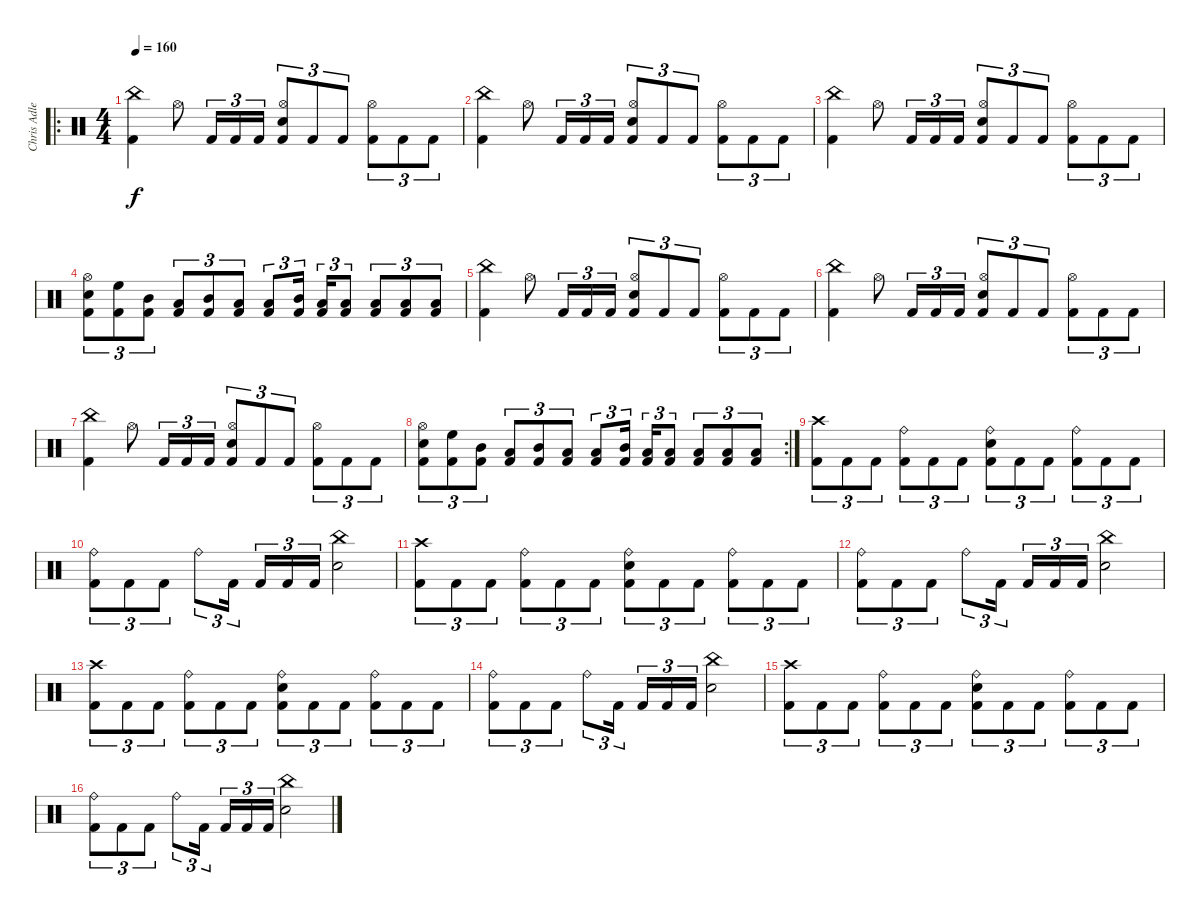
\track ("Chris Adler" "Chris Adle") {instrument percussion}
\staff {score}
\articulation defaults
\ro
\ts (4 4)
\tempo 160
\clef neutral
\ks c
("China (hit)" "Kick (hit) 2").4{dy f} "Hi-Hat (open)".8 "Kick (hit) 2".16{tu (3 2)} "Kick (hit) 2".16{tu (3 2)} "Kick (hit) 2".16{tu (3 2)} ("Hi-Hat (open)" "Snare (hit) 2" "Kick (hit) 2").8{tu (3 2)} "Kick (hit) 2".8{tu (3 2)} "Kick (hit) 2".8{tu (3 2)} ("Hi-Hat (open)" "Kick (hit) 2").8{tu (3 2)} "Kick (hit) 2".8{tu (3 2)} "Kick (hit) 2".8{tu (3 2)} |
("China (hit)" "Kick (hit) 2").4 "Hi-Hat (open)".8 "Kick (hit) 2".16{tu (3 2)} "Kick (hit) 2".16{tu (3 2)} "Kick (hit) 2".16{tu (3 2)} ("Hi-Hat (open)" "Snare (hit) 2" "Kick (hit) 2").8{tu (3 2)} "Kick (hit) 2".8{tu (3 2)} "Kick (hit) 2".8{tu (3 2)} ("Hi-Hat (open)" "Kick (hit) 2").8{tu (3 2)} "Kick (hit) 2".8{tu (3 2)} "Kick (hit) 2".8{tu (3 2)} |
("China (hit)" "Kick (hit) 2").4 "Hi-Hat (open)".8 "Kick (hit) 2".16{tu (3 2)} "Kick (hit) 2".16{tu (3 2)} "Kick (hit) 2".16{tu (3 2)} ("Hi-Hat (open)" "Snare (hit) 2" "Kick (hit) 2").8{tu (3 2)} "Kick (hit) 2".8{tu (3 2)} "Kick (hit) 2".8{tu (3 2)} ("Hi-Hat (open)" "Kick (hit) 2").8{tu (3 2)} "Kick (hit) 2".8{tu (3 2)} "Kick (hit) 2".8{tu (3 2)} |
("Hi-Hat (open)" "Snare (hit) 2" "Kick (hit) 2").8{tu (3 2)} ("High Floor Tom (hit)" "Kick (hit) 2").8{tu (3 2)} ("Mid Tom (hit)" "Kick (hit) 2").8{tu (3 2)} ("Low Tom (hit)" "Kick (hit) 2").8{tu (3 2)} ("Mid Tom (hit)" "Kick (hit) 2").8{tu (3 2)} ("Low Tom (hit)" "Kick (hit) 2").8{tu (3 2)} ("Low Floor Tom (hit)" "Kick (hit) 2").8{tu (3 2)} ("Mid Tom (hit)" "Kick (hit) 2").16{tu (3 2) beam splitsecondary} ("Low Tom (hit)" "Kick (hit) 2").16{tu (3 2)} ("Low Tom (hit)" "Kick (hit) 2").8{tu (3 2)} ("Low Floor Tom (hit)" "Kick (hit) 2").8{tu (3 2)} ("Low Tom (hit)" "Kick (hit) 2").8{tu (3 2)} ("Low Floor Tom (hit)" "Kick (hit) 2").8{tu (3 2)} |
("China (hit)" "Kick (hit) 2").4 "Hi-Hat (open)".8 "Kick (hit) 2".16{tu (3 2)} "Kick (hit) 2".16{tu (3 2)} "Kick (hit) 2".16{tu (3 2)} ("Hi-Hat (open)" "Snare (hit) 2" "Kick (hit) 2").8{tu (3 2)} "Kick (hit) 2".8{tu (3 2)} "Kick (hit) 2".8{tu (3 2)} ("Hi-Hat (open)" "Kick (hit) 2").8{tu (3 2)} "Kick (hit) 2".8{tu (3 2)} "Kick (hit) 2".8{tu (3 2)} |
("China (hit)" "Kick (hit) 2").4 "Hi-Hat (open)".8 "Kick (hit) 2".16{tu (3 2)} "Kick (hit) 2".16{tu (3 2)} "Kick (hit) 2".16{tu (3 2)} ("Hi-Hat (open)" "Snare (hit) 2" "Kick (hit) 2").8{tu (3 2)} "Kick (hit) 2".8{tu (3 2)} "Kick (hit) 2".8{tu (3 2)} ("Hi-Hat (open)" "Kick (hit) 2").8{tu (3 2)} "Kick (hit) 2".8{tu (3 2)} "Kick (hit) 2".8{tu (3 2)} |
("China (hit)" "Kick (hit) 2").4 "Hi-Hat (open)".8 "Kick (hit) 2".16{tu (3 2)} "Kick (hit) 2".16{tu (3 2)} "Kick (hit) 2".16{tu (3 2)} ("Hi-Hat (open)" "Snare (hit) 2" "Kick (hit) 2").8{tu (3 2)} "Kick (hit) 2".8{tu (3 2)} "Kick (hit) 2".8{tu (3 2)} ("Hi-Hat (open)" "Kick (hit) 2").8{tu (3 2)} "Kick (hit) 2".8{tu (3 2)} "Kick (hit) 2".8{tu (3 2)} |
\rc 2
("Hi-Hat (open)" "Snare (hit) 2" "Kick (hit) 2").8{tu (3 2)} ("High Floor Tom (hit)" "Kick (hit) 2").8{tu (3 2)} ("Mid Tom (hit)" "Kick (hit) 2").8{tu (3 2)} ("Low Tom (hit)" "Kick (hit) 2").8{tu (3 2)} ("Mid Tom (hit)" "Kick (hit) 2").8{tu (3 2)} ("Low Tom (hit)" "Kick (hit) 2").8{tu (3 2)} ("Low Floor Tom (hit)" "Kick (hit) 2").8{tu (3 2)} ("Mid Tom (hit)" "Kick (hit) 2").16{tu (3 2) beam splitsecondary} ("Low Tom (hit)" "Kick (hit) 2").16{tu (3 2)} ("Low Tom (hit)" "Kick (hit) 2").8{tu (3 2)} ("Low Floor Tom (hit)" "Kick (hit) 2").8{tu (3 2)} ("Low Tom (hit)" "Kick (hit) 2").8{tu (3 2)} ("Low Floor Tom (hit)" "Kick (hit) 2").8{tu (3 2)} |
("Crash high (hit)" "Kick (hit) 2").8{tu (3 2)} "Kick (hit) 2".8{tu (3 2)} "Kick (hit) 2".8{tu (3 2)} ("Ride (bell)" "Kick (hit) 2").8{tu (3 2)} "Kick (hit) 2".8{tu (3 2)} "Kick (hit) 2".8{tu (3 2)} ("Ride (bell)" "Snare (hit) 2" "Kick (hit) 2").8{tu (3 2)} "Kick (hit) 2".8{tu (3 2)} "Kick (hit) 2".8{tu (3 2)} ("Ride (bell)" "Kick (hit) 2").8{tu (3 2)} "Kick (hit) 2".8{tu (3 2)} "Kick (hit) 2".8{tu (3 2)} |
("Ride (bell)" "Kick (hit) 2").8{tu (3 2)} "Kick (hit) 2".8{tu (3 2)} "Kick (hit) 2".8{tu (3 2)} "Ride (bell)".8{tu (3 2)} "Kick (hit) 2".16{tu (3 2) beam splitsecondary} "Kick (hit) 2".16{tu (3 2)} "Kick (hit) 2".16{tu (3 2)} "Kick (hit) 2".16{tu (3 2)} ("China (hit)" "Snare (hit) 2").2 |
("Crash high (hit)" "Kick (hit) 2").8{tu (3 2)} "Kick (hit) 2".8{tu (3 2)} "Kick (hit) 2".8{tu (3 2)} ("Ride (bell)" "Kick (hit) 2").8{tu (3 2)} "Kick (hit) 2".8{tu (3 2)} "Kick (hit) 2".8{tu (3 2)} ("Ride (bell)" "Snare (hit) 2" "Kick (hit) 2").8{tu (3 2)} "Kick (hit) 2".8{tu (3 2)} "Kick (hit) 2".8{tu (3 2)} ("Ride (bell)" "Kick (hit) 2").8{tu (3 2)} "Kick (hit) 2".8{tu (3 2)} "Kick (hit) 2".8{tu (3 2)} |
("Ride (bell)" "Kick (hit) 2").8{tu (3 2)} "Kick (hit) 2".8{tu (3 2)} "Kick (hit) 2".8{tu (3 2)} "Ride (bell)".8{tu (3 2)} "Kick (hit) 2".16{tu (3 2) beam splitsecondary} "Kick (hit) 2".16{tu (3 2)} "Kick (hit) 2".16{tu (3 2)} "Kick (hit) 2".16{tu (3 2)} ("China (hit)" "Snare (hit) 2").2 |
("Crash high (hit)" "Kick (hit) 2").8{tu (3 2)} "Kick (hit) 2".8{tu (3 2)} "Kick (hit) 2".8{tu (3 2)} ("Ride (bell)" "Kick (hit) 2").8{tu (3 2)} "Kick (hit) 2".8{tu (3 2)} "Kick (hit) 2".8{tu (3 2)} ("Ride (bell)" "Snare (hit) 2" "Kick (hit) 2").8{tu (3 2)} "Kick (hit) 2".8{tu (3 2)} "Kick (hit) 2".8{tu (3 2)} ("Ride (bell)" "Kick (hit) 2").8{tu (3 2)} "Kick (hit) 2".8{tu (3 2)} "Kick (hit) 2".8{tu (3 2)} |
("Ride (bell)" "Kick (hit) 2").8{tu (3 2)} "Kick (hit) 2".8{tu (3 2)} "Kick (hit) 2".8{tu (3 2)} "Ride (bell)".8{tu (3 2)} "Kick (hit) 2".16{tu (3 2) beam splitsecondary} "Kick (hit) 2".16{tu (3 2)} "Kick (hit) 2".16{tu (3 2)} "Kick (hit) 2".16{tu (3 2)} ("China (hit)" "Snare (hit) 2").2 |
("Crash high (hit)" "Kick (hit) 2").8{tu (3 2)} "Kick (hit) 2".8{tu (3 2)} "Kick (hit) 2".8{tu (3 2)} ("Ride (bell)" "Kick (hit) 2").8{tu (3 2)} "Kick (hit) 2".8{tu (3 2)} "Kick (hit) 2".8{tu (3 2)} ("Ride (bell)" "Snare (hit) 2" "Kick (hit) 2").8{tu (3 2)} "Kick (hit) 2".8{tu (3 2)} "Kick (hit) 2".8{tu (3 2)} ("Ride (bell)" "Kick (hit) 2").8{tu (3 2)} "Kick (hit) 2".8{tu (3 2)} "Kick (hit) 2".8{tu (3 2)} |
("Ride (bell)" "Kick (hit) 2").8{tu (3 2)} "Kick (hit) 2".8{tu (3 2)} "Kick (hit) 2".8{tu (3 2)} "Ride (bell)".8{tu (3 2)} "Kick (hit) 2".16{tu (3 2) beam splitsecondary} "Kick (hit) 2".16{tu (3 2)} "Kick (hit) 2".16{tu (3 2)} "Kick (hit) 2".16{tu (3 2)} ("China (hit)" "Snare (hit) 2").2
